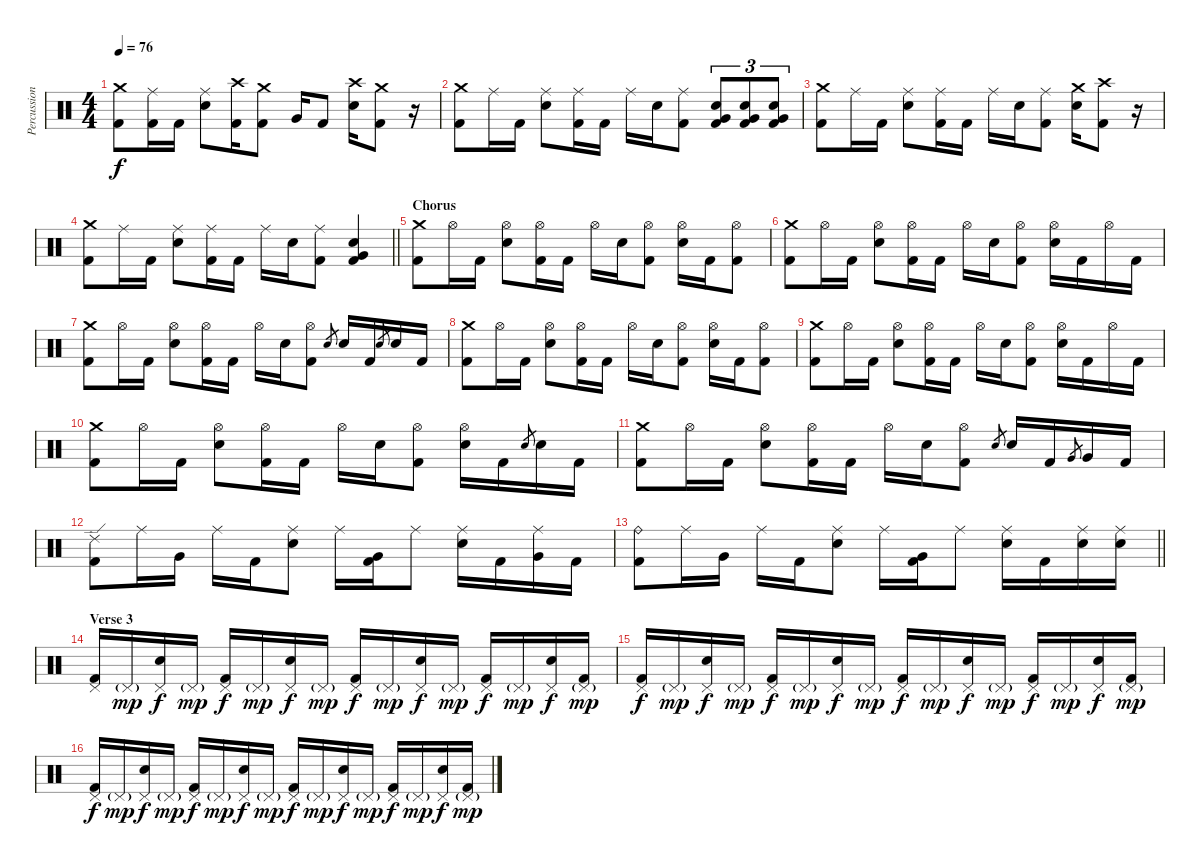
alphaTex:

\track ("Percussion" "Percussion") {instrument percussion}
\staff {score}
\articulation defaults
\ts (4 4)
\tempo 76
\clef neutral
\ks c
("Crash medium (hit)" "Kick (hit) 2").8{dy f} ("Ride (middle)" "Kick (hit) 2").16 "Kick (hit) 2".16 ("Ride (middle)" "Electric Snare (hit)").8 ("Crash high (hit)" "Kick (hit) 2").16 ("Crash medium (hit)" "Kick (hit) 2").8 "Very Low Tom (hit)".16 "Kick (hit) 2".8 ("Crash high (hit)" "Electric Snare (hit)").16 ("Crash medium (hit)" "Kick (hit) 2").8 r.16 |
("Crash medium (hit)" "Kick (hit) 2").8 "Ride (middle)".16 "Kick (hit) 2".16 ("Ride (middle)" "Electric Snare (hit)").8 ("Ride (middle)" "Kick (hit) 2").16 "Kick (hit) 2".16 "Ride (middle)".16 "Electric Snare (hit)".16 ("Ride (middle)" "Kick (hit) 2").8 ("Very Low Tom (hit)" "Electric Snare (hit)" "Kick (hit) 2").8{tu (3 2)} ("Very Low Tom (hit)" "Electric Snare (hit)" "Kick (hit) 2").8{tu (3 2)} ("Very Low Tom (hit)" "Electric Snare (hit)" "Kick (hit) 2").8{tu (3 2)} |
("Crash medium (hit)" "Kick (hit) 2").8 "Ride (middle)".16 "Kick (hit) 2".16 ("Ride (middle)" "Electric Snare (hit)").8 ("Ride (middle)" "Kick (hit) 2").16 "Kick (hit) 2".16 "Ride (middle)".16 "Electric Snare (hit)".16 ("Ride (middle)" "Kick (hit) 2").8 ("Crash medium (hit)" "Electric Snare (hit)").16 ("Crash high (hit)" "Kick (hit) 2").8 r.16 |
\barLineRight lightlight
("Crash medium (hit)" "Kick (hit) 2").8 "Ride (middle)".16 "Kick (hit) 2".16 ("Ride (middle)" "Electric Snare (hit)").8 ("Ride (middle)" "Kick (hit) 2").16 "Kick (hit) 2".16 "Ride (middle)".16 "Electric Snare (hit)".16 ("Ride (middle)" "Kick (hit) 2").8 ("Very Low Tom (hit)" "Electric Snare (hit)" "Kick (hit) 2").4 |
\section ("" "Chorus")
("Crash medium (hit)" "Kick (hit) 2").8 "Hi-Hat (open)".16 "Kick (hit) 2".16 ("Hi-Hat (open)" "Electric Snare (hit)").8 ("Hi-Hat (open)" "Kick (hit) 2").16 "Kick (hit) 2".16 "Hi-Hat (open)".16 "Electric Snare (hit)".16 ("Hi-Hat (open)" "Kick (hit) 2").8 ("Hi-Hat (open)" "Electric Snare (hit)").16 "Kick (hit) 2".16 ("Hi-Hat (open)" "Kick (hit) 2").8 |
("Crash medium (hit)" "Kick (hit) 2").8 "Hi-Hat (open)".16 "Kick (hit) 2".16 ("Hi-Hat (open)" "Electric Snare (hit)").8 ("Hi-Hat (open)" "Kick (hit) 2").16 "Kick (hit) 2".16 "Hi-Hat (open)".16 "Electric Snare (hit)".16 ("Hi-Hat (open)" "Kick (hit) 2").8 ("Hi-Hat (open)" "Electric Snare (hit)").16 "Kick (hit) 2".16 "Hi-Hat (open)".16 "Kick (hit) 2".16 |
("Crash medium (hit)" "Kick (hit) 2").8 "Hi-Hat (open)".16 "Kick (hit) 2".16 ("Hi-Hat (open)" "Electric Snare (hit)").8 ("Hi-Hat (open)" "Kick (hit) 2").16 "Kick (hit) 2".16 "Hi-Hat (open)".16 "Electric Snare (hit)".16 ("Hi-Hat (open)" "Kick (hit) 2").8 "Electric Snare (hit)".8{gr} "Electric Snare (hit)".16 "Kick (hit) 2".16 "Electric Snare (hit)".8{gr} "Electric Snare (hit)".16 "Kick (hit) 2".16 |
("Crash medium (hit)" "Kick (hit) 2").8 "Hi-Hat (open)".16 "Kick (hit) 2".16 ("Hi-Hat (open)" "Electric Snare (hit)").8 ("Hi-Hat (open)" "Kick (hit) 2").16 "Kick (hit) 2".16 "Hi-Hat (open)".16 "Electric Snare (hit)".16 ("Hi-Hat (open)" "Kick (hit) 2").8 ("Hi-Hat (open)" "Electric Snare (hit)").16 "Kick (hit) 2".16 ("Hi-Hat (open)" "Kick (hit) 2").8 |
("Crash medium (hit)" "Kick (hit) 2").8 "Hi-Hat (open)".16 "Kick (hit) 2".16 ("Hi-Hat (open)" "Electric Snare (hit)").8 ("Hi-Hat (open)" "Kick (hit) 2").16 "Kick (hit) 2".16 "Hi-Hat (open)".16 "Electric Snare (hit)".16 ("Hi-Hat (open)" "Kick (hit) 2").8 ("Hi-Hat (open)" "Electric Snare (hit)").16 "Kick (hit) 2".16 "Hi-Hat (open)".16 "Kick (hit) 2".16 |
("Crash medium (hit)" "Kick (hit) 2").8 "Hi-Hat (open)".16 "Kick (hit) 2".16 ("Hi-Hat (open)" "Electric Snare (hit)").8 ("Hi-Hat (open)" "Kick (hit) 2").16 "Kick (hit) 2".16 "Hi-Hat (open)".16 "Electric Snare (hit)".16 ("Hi-Hat (open)" "Kick (hit) 2").8 ("Hi-Hat (open)" "Electric Snare (hit)").16 "Kick (hit) 2".16 "Electric Snare (hit)".8{gr} "Electric Snare (hit)".16 "Kick (hit) 2".16 |
("Crash medium (hit)" "Kick (hit) 2").8 "Hi-Hat (open)".16 "Kick (hit) 2".16 ("Hi-Hat (open)" "Electric Snare (hit)").8 ("Hi-Hat (open)" "Kick (hit) 2").16 "Kick (hit) 2".16 "Hi-Hat (open)".16 "Electric Snare (hit)".16 ("Hi-Hat (open)" "Kick (hit) 2").8 "Electric Snare (hit)".8{gr} "Electric Snare (hit)".16 "Kick (hit) 2".16 "Very Low Tom (hit)".8{gr} "Very Low Tom (hit)".16 "Kick (hit) 2".16 |
("Ride (edge) 2" "Kick (hit) 2").8 "Ride (middle)".16 "Very Low Tom (hit)".16 "Ride (middle)".16 "Kick (hit) 2".16 ("Ride (middle)" "Electric Snare (hit)").8 "Ride (middle)".16 ("Very Low Tom (hit)" "Kick (hit) 2").16 "Ride (middle)".8 ("Ride (middle)" "Electric Snare (hit)").16 "Kick (hit) 2".16 ("Ride (middle)" "Very Low Tom (hit)").16 "Kick (hit) 2".16 |
\barLineRight lightlight
("Ride (bell)" "Kick (hit) 2").8 "Ride (middle)".16 "Very Low Tom (hit)".16 "Ride (middle)".16 "Kick (hit) 2".16 ("Ride (middle)" "Electric Snare (hit)").8 "Ride (middle)".16 ("Very Low Tom (hit)" "Kick (hit) 2").16 "Ride (middle)".8 ("Ride (middle)" "Electric Snare (hit)").16 "Kick (hit) 2".16 ("Ride (middle)" "Electric Snare (hit)").16 ("Ride (middle)" "Electric Snare (hit)").16 |
\section ("" "Verse 3")
("Pedal Hi-Hat (hit)" "Kick (hit) 2").16 "Pedal Hi-Hat (hit)"{g}.16{dy mp} ("Pedal Hi-Hat (hit)" "Electric Snare (hit)").16{dy f} "Pedal Hi-Hat (hit)"{g}.16{dy mp} ("Pedal Hi-Hat (hit)" "Kick (hit) 2").16{dy f} "Pedal Hi-Hat (hit)"{g}.16{dy mp} ("Pedal Hi-Hat (hit)" "Electric Snare (hit)").16{dy f} "Pedal Hi-Hat (hit)"{g}.16{dy mp} ("Pedal Hi-Hat (hit)" "Kick (hit) 2").16{dy f} "Pedal Hi-Hat (hit)"{g}.16{dy mp} ("Pedal Hi-Hat (hit)" "Electric Snare (hit)").16{dy f} "Pedal Hi-Hat (hit)"{g}.16{dy mp} ("Pedal Hi-Hat (hit)" "Kick (hit) 2").16{dy f} "Pedal Hi-Hat (hit)"{g}.16{dy mp} ("Pedal Hi-Hat (hit)" "Electric Snare (hit)").16{dy f} ("Pedal Hi-Hat (hit)"{g} "Kick (hit) 2").16{dy mp} |
("Pedal Hi-Hat (hit)" "Kick (hit) 2").16{dy f} "Pedal Hi-Hat (hit)"{g}.16{dy mp} ("Pedal Hi-Hat (hit)" "Electric Snare (hit)").16{dy f} "Pedal Hi-Hat (hit)"{g}.16{dy mp} ("Pedal Hi-Hat (hit)" "Kick (hit) 2").16{dy f} "Pedal Hi-Hat (hit)"{g}.16{dy mp} ("Pedal Hi-Hat (hit)" "Electric Snare (hit)").16{dy f} "Pedal Hi-Hat (hit)"{g}.16{dy mp} ("Pedal Hi-Hat (hit)" "Kick (hit) 2").16{dy f} "Pedal Hi-Hat (hit)"{g}.16{dy mp} ("Pedal Hi-Hat (hit)" "Electric Snare (hit)").16{dy f} "Pedal Hi-Hat (hit)"{g}.16{dy mp} ("Pedal Hi-Hat (hit)" "Kick (hit) 2").16{dy f} "Pedal Hi-Hat (hit)"{g}.16{dy mp} ("Pedal Hi-Hat (hit)" "Electric Snare (hit)").16{dy f} ("Pedal Hi-Hat (hit)"{g} "Kick (hit) 2").16{dy mp} |
("Pedal Hi-Hat (hit)" "Kick (hit) 2").16{dy f} "Pedal Hi-Hat (hit)"{g}.16{dy mp} ("Pedal Hi-Hat (hit)" "Electric Snare (hit)").16{dy f} "Pedal Hi-Hat (hit)"{g}.16{dy mp} ("Pedal Hi-Hat (hit)" "Kick (hit) 2").16{dy f} "Pedal Hi-Hat (hit)"{g}.16{dy mp} ("Pedal Hi-Hat (hit)" "Electric Snare (hit)").16{dy f} "Pedal Hi-Hat (hit)"{g}.16{dy mp} ("Pedal Hi-Hat (hit)" "Kick (hit) 2").16{dy f} "Pedal Hi-Hat (hit)"{g}.16{dy mp} ("Pedal Hi-Hat (hit)" "Electric Snare (hit)").16{dy f} "Pedal Hi-Hat (hit)"{g}.16{dy mp} ("Pedal Hi-Hat (hit)" "Kick (hit) 2").16{dy f} "Pedal Hi-Hat (hit)"{g}.16{dy mp} ("Pedal Hi-Hat (hit)" "Electric Snare (hit)").16{dy f} ("Pedal Hi-Hat (hit)"{g} "Kick (hit) 2").16{dy mp}
